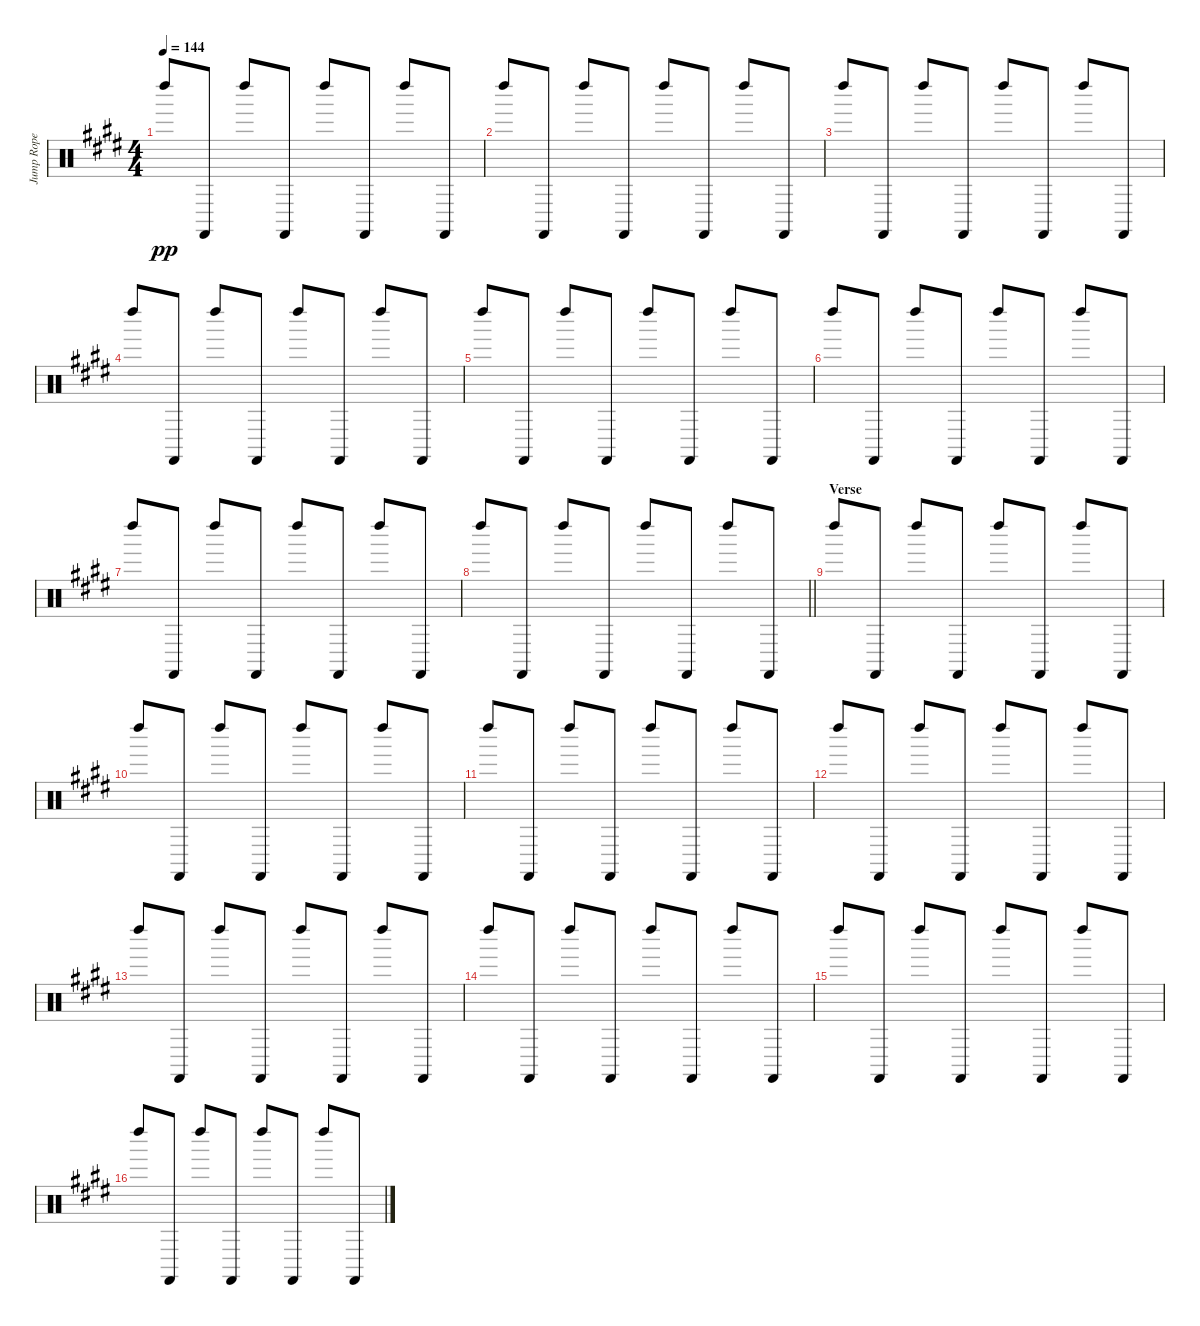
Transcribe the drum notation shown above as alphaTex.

\track ("Jump Rope" "Jump Rope") {instrument percussion}
\staff {score}
\articulation defaults
\ts (4 4)
\tempo 144
\clef neutral
\ks e "Left Maraca (hit)".8{dy pp} "Castanets (hit)".8 "Left Maraca (hit)".8 "Castanets (hit)".8 "Left Maraca (hit)".8 "Castanets (hit)".8 "Left Maraca (hit)".8 "Castanets (hit)".8
|
"Left Maraca (hit)".8 "Castanets (hit)".8 "Left Maraca (hit)".8 "Castanets (hit)".8 "Left Maraca (hit)".8 "Castanets (hit)".8 "Left Maraca (hit)".8 "Castanets (hit)".8 |
"Left Maraca (hit)".8 "Castanets (hit)".8 "Left Maraca (hit)".8 "Castanets (hit)".8 "Left Maraca (hit)".8 "Castanets (hit)".8 "Left Maraca (hit)".8 "Castanets (hit)".8 |
"Left Maraca (hit)".8 "Castanets (hit)".8 "Left Maraca (hit)".8 "Castanets (hit)".8 "Left Maraca (hit)".8 "Castanets (hit)".8 "Left Maraca (hit)".8 "Castanets (hit)".8 |
"Left Maraca (hit)".8 "Castanets (hit)".8 "Left Maraca (hit)".8 "Castanets (hit)".8 "Left Maraca (hit)".8 "Castanets (hit)".8 "Left Maraca (hit)".8 "Castanets (hit)".8 |
"Left Maraca (hit)".8 "Castanets (hit)".8 "Left Maraca (hit)".8 "Castanets (hit)".8 "Left Maraca (hit)".8 "Castanets (hit)".8 "Left Maraca (hit)".8 "Castanets (hit)".8 |
"Left Maraca (hit)".8 "Castanets (hit)".8 "Left Maraca (hit)".8 "Castanets (hit)".8 "Left Maraca (hit)".8 "Castanets (hit)".8 "Left Maraca (hit)".8 "Castanets (hit)".8 |
\barLineRight lightlight "Left Maraca (hit)".8 "Castanets (hit)".8 "Left Maraca (hit)".8 "Castanets (hit)".8 "Left Maraca (hit)".8 "Castanets (hit)".8 "Left Maraca (hit)".8 "Castanets (hit)".8
|
\section ("" "Verse")
"Left Maraca (hit)".8 "Castanets (hit)".8 "Left Maraca (hit)".8 "Castanets (hit)".8 "Left Maraca (hit)".8 "Castanets (hit)".8 "Left Maraca (hit)".8 "Castanets (hit)".8 |
"Left Maraca (hit)".8 "Castanets (hit)".8 "Left Maraca (hit)".8 "Castanets (hit)".8 "Left Maraca (hit)".8 "Castanets (hit)".8 "Left Maraca (hit)".8 "Castanets (hit)".8 |
"Left Maraca (hit)".8 "Castanets (hit)".8 "Left Maraca (hit)".8 "Castanets (hit)".8 "Left Maraca (hit)".8 "Castanets (hit)".8 "Left Maraca (hit)".8 "Castanets (hit)".8 |
"Left Maraca (hit)".8 "Castanets (hit)".8 "Left Maraca (hit)".8 "Castanets (hit)".8 "Left Maraca (hit)".8 "Castanets (hit)".8 "Left Maraca (hit)".8 "Castanets (hit)".8 |
"Left Maraca (hit)".8 "Castanets (hit)".8 "Left Maraca (hit)".8 "Castanets (hit)".8 "Left Maraca (hit)".8 "Castanets (hit)".8 "Left Maraca (hit)".8 "Castanets (hit)".8 |
"Left Maraca (hit)".8 "Castanets (hit)".8 "Left Maraca (hit)".8 "Castanets (hit)".8 "Left Maraca (hit)".8 "Castanets (hit)".8 "Left Maraca (hit)".8 "Castanets (hit)".8 |
"Left Maraca (hit)".8 "Castanets (hit)".8 "Left Maraca (hit)".8 "Castanets (hit)".8 "Left Maraca (hit)".8 "Castanets (hit)".8 "Left Maraca (hit)".8 "Castanets (hit)".8 |
"Left Maraca (hit)".8 "Castanets (hit)".8 "Left Maraca (hit)".8 "Castanets (hit)".8 "Left Maraca (hit)".8 "Castanets (hit)".8 "Left Maraca (hit)".8 "Castanets (hit)".8
